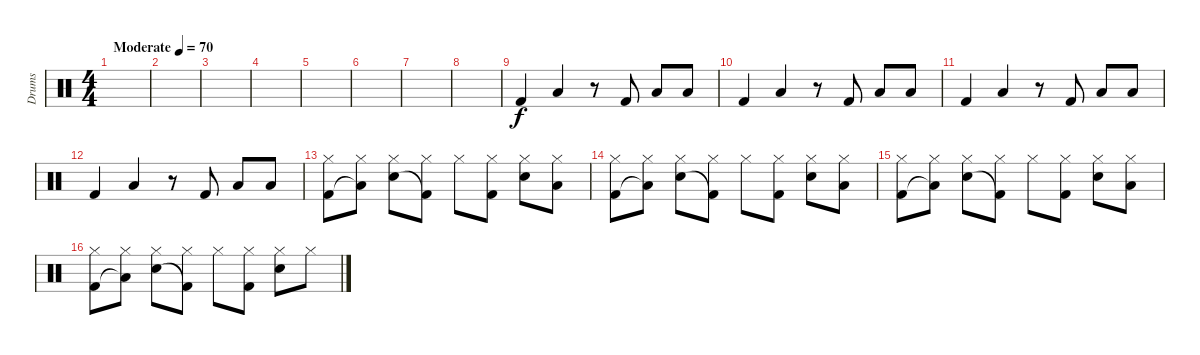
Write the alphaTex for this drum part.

\track ("Drums" "Drums") {instrument percussion}
\staff {score}
\articulation defaults
\ts (4 4)
\tempo (70 "Moderate")
\clef neutral
\ks c
|
|
|
|
|
|
|
|
"Kick (hit) 2".4 "Low Floor Tom (hit)".4 r.8 "Kick (hit) 2".8 "Low Floor Tom (hit)".8 "Low Floor Tom (hit)".8 |
"Kick (hit) 2".4 "Low Floor Tom (hit)".4 r.8 "Kick (hit) 2".8 "Low Floor Tom (hit)".8 "Low Floor Tom (hit)".8 |
"Kick (hit) 2".4 "Low Floor Tom (hit)".4 r.8 "Kick (hit) 2".8 "Low Floor Tom (hit)".8 "Low Floor Tom (hit)".8 |
"Kick (hit) 2".4 "Low Floor Tom (hit)".4 r.8 "Kick (hit) 2".8 "Low Floor Tom (hit)".8 "Low Floor Tom (hit)".8 |
("Kick (hit) 2" "Hi-Hat (closed)").8 ("Low Floor Tom (hit)"{t} "Hi-Hat (closed)").8 ("Electric Snare (hit)" "Hi-Hat (closed)").8 ("Kick (hit) 2"{t} "Hi-Hat (closed)").8 "Hi-Hat (closed)".8 ("Kick (hit) 2" "Hi-Hat (closed)").8 ("Electric Snare (hit)" "Hi-Hat (closed)").8 ("Low Floor Tom (hit)" "Hi-Hat (closed)").8 |
("Kick (hit) 2" "Hi-Hat (closed)").8 ("Low Floor Tom (hit)"{t} "Hi-Hat (closed)").8 ("Electric Snare (hit)" "Hi-Hat (closed)").8 ("Kick (hit) 2"{t} "Hi-Hat (closed)").8 "Hi-Hat (closed)".8 ("Kick (hit) 2" "Hi-Hat (closed)").8 ("Electric Snare (hit)" "Hi-Hat (closed)").8 ("Low Floor Tom (hit)" "Hi-Hat (closed)").8 |
("Kick (hit) 2" "Hi-Hat (closed)").8 ("Low Floor Tom (hit)"{t} "Hi-Hat (closed)").8 ("Electric Snare (hit)" "Hi-Hat (closed)").8 ("Kick (hit) 2"{t} "Hi-Hat (closed)").8 "Hi-Hat (closed)".8 ("Kick (hit) 2" "Hi-Hat (closed)").8 ("Electric Snare (hit)" "Hi-Hat (closed)").8 ("Low Floor Tom (hit)" "Hi-Hat (closed)").8 |
("Kick (hit) 2" "Hi-Hat (closed)").8 ("Low Floor Tom (hit)"{t} "Hi-Hat (closed)").8 ("Electric Snare (hit)" "Hi-Hat (closed)").8 ("Kick (hit) 2"{t} "Hi-Hat (closed)").8 "Hi-Hat (closed)".8 ("Kick (hit) 2" "Hi-Hat (closed)").8 ("Electric Snare (hit)" "Hi-Hat (closed)").8 "Hi-Hat (closed)".8
